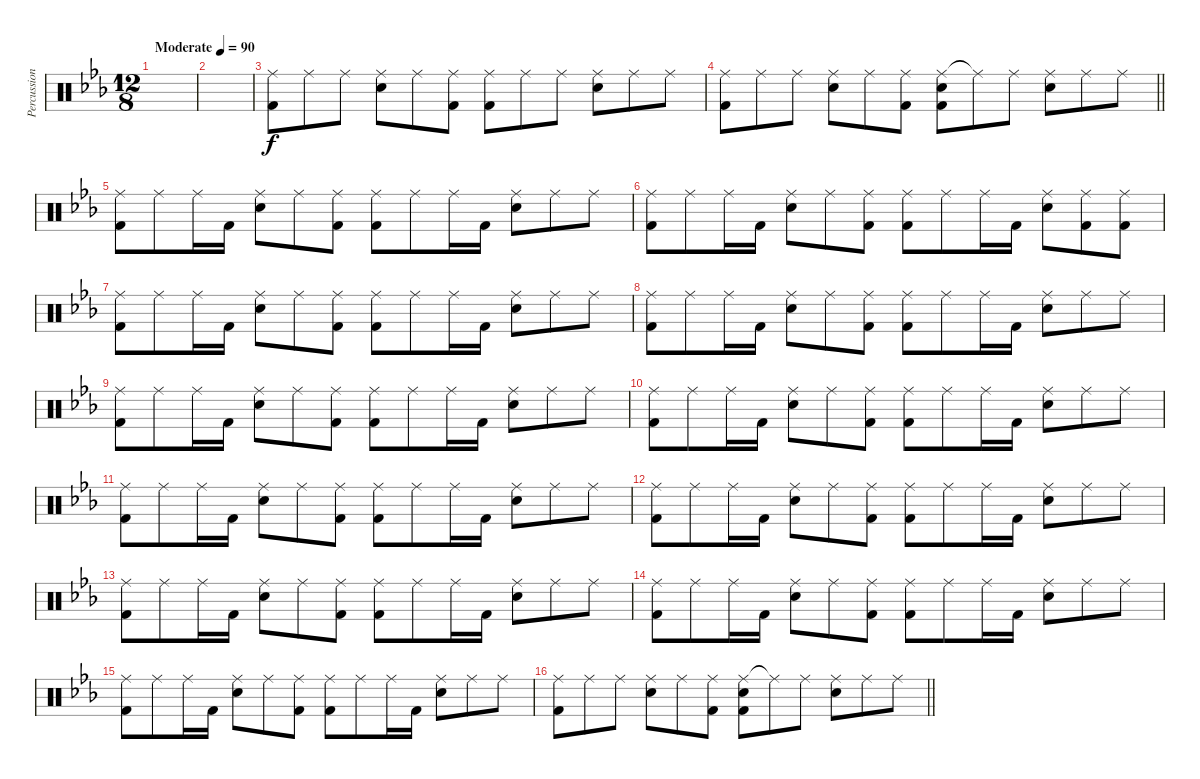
\track ("Percussion" "Percussion") {instrument percussion}
\staff {score}
\articulation defaults
\ts (12 8)
\tempo (90 "Moderate")
\clef neutral
\ks eb
|
|
("Ride (middle)" "Kick (hit) 2").8 "Ride (middle)".8 "Ride (middle)".8 ("Ride (middle)" "Snare (hit) 2").8 "Ride (middle)".8 ("Ride (middle)" "Kick (hit) 2").8 ("Ride (middle)" "Kick (hit) 2").8 "Ride (middle)".8 "Ride (middle)".8 ("Ride (middle)" "Snare (hit) 2").8 "Ride (middle)".8 "Ride (middle)".8 |
\barLineRight lightlight
("Ride (middle)" "Kick (hit) 2").8 "Ride (middle)".8 "Ride (middle)".8 ("Ride (middle)" "Snare (hit) 2").8 "Ride (middle)".8 ("Ride (middle)" "Kick (hit) 2").8 ("Ride (middle)" "Snare (hit) 2" "Kick (hit) 2").8 "Ride (middle)"{t}.8 "Ride (middle)".8 ("Ride (middle)" "Snare (hit) 2").8 "Ride (middle)".8 "Ride (middle)".8 |
("Ride (middle)" "Kick (hit) 2").8 "Ride (middle)".8 "Ride (middle)".16 "Kick (hit) 2".16 ("Ride (middle)" "Snare (hit) 2").8 "Ride (middle)".8 ("Ride (middle)" "Kick (hit) 2").8 ("Ride (middle)" "Kick (hit) 2").8 "Ride (middle)".8 "Ride (middle)".16 "Kick (hit) 2".16 ("Ride (middle)" "Snare (hit) 2").8 "Ride (middle)".8 "Ride (middle)".8 |
("Ride (middle)" "Kick (hit) 2").8 "Ride (middle)".8 "Ride (middle)".16 "Kick (hit) 2".16 ("Ride (middle)" "Snare (hit) 2").8 "Ride (middle)".8 ("Ride (middle)" "Kick (hit) 2").8 ("Ride (middle)" "Kick (hit) 2").8 "Ride (middle)".8 "Ride (middle)".16 "Kick (hit) 2".16 ("Ride (middle)" "Snare (hit) 2").8 ("Ride (middle)" "Kick (hit) 2").8 ("Ride (middle)" "Kick (hit) 2").8 |
("Ride (middle)" "Kick (hit) 2").8 "Ride (middle)".8 "Ride (middle)".16 "Kick (hit) 2".16 ("Ride (middle)" "Snare (hit) 2").8 "Ride (middle)".8 ("Ride (middle)" "Kick (hit) 2").8 ("Ride (middle)" "Kick (hit) 2").8 "Ride (middle)".8 "Ride (middle)".16 "Kick (hit) 2".16 ("Ride (middle)" "Snare (hit) 2").8 "Ride (middle)".8 "Ride (middle)".8 |
("Ride (middle)" "Kick (hit) 2").8 "Ride (middle)".8 "Ride (middle)".16 "Kick (hit) 2".16 ("Ride (middle)" "Snare (hit) 2").8 "Ride (middle)".8 ("Ride (middle)" "Kick (hit) 2").8 ("Ride (middle)" "Kick (hit) 2").8 "Ride (middle)".8 "Ride (middle)".16 "Kick (hit) 2".16 ("Ride (middle)" "Snare (hit) 2").8 "Ride (middle)".8 "Ride (middle)".8 |
("Ride (middle)" "Kick (hit) 2").8 "Ride (middle)".8 "Ride (middle)".16 "Kick (hit) 2".16 ("Ride (middle)" "Snare (hit) 2").8 "Ride (middle)".8 ("Ride (middle)" "Kick (hit) 2").8 ("Ride (middle)" "Kick (hit) 2").8 "Ride (middle)".8 "Ride (middle)".16 "Kick (hit) 2".16 ("Ride (middle)" "Snare (hit) 2").8 "Ride (middle)".8 "Ride (middle)".8 |
("Ride (middle)" "Kick (hit) 2").8 "Ride (middle)".8 "Ride (middle)".16 "Kick (hit) 2".16 ("Ride (middle)" "Snare (hit) 2").8 "Ride (middle)".8 ("Ride (middle)" "Kick (hit) 2").8 ("Ride (middle)" "Kick (hit) 2").8 "Ride (middle)".8 "Ride (middle)".16 "Kick (hit) 2".16 ("Ride (middle)" "Snare (hit) 2").8 "Ride (middle)".8 "Ride (middle)".8 |
("Ride (middle)" "Kick (hit) 2").8 "Ride (middle)".8 "Ride (middle)".16 "Kick (hit) 2".16 ("Ride (middle)" "Snare (hit) 2").8 "Ride (middle)".8 ("Ride (middle)" "Kick (hit) 2").8 ("Ride (middle)" "Kick (hit) 2").8 "Ride (middle)".8 "Ride (middle)".16 "Kick (hit) 2".16 ("Ride (middle)" "Snare (hit) 2").8 "Ride (middle)".8 "Ride (middle)".8 |
("Ride (middle)" "Kick (hit) 2").8 "Ride (middle)".8 "Ride (middle)".16 "Kick (hit) 2".16 ("Ride (middle)" "Snare (hit) 2").8 "Ride (middle)".8 ("Ride (middle)" "Kick (hit) 2").8 ("Ride (middle)" "Kick (hit) 2").8 "Ride (middle)".8 "Ride (middle)".16 "Kick (hit) 2".16 ("Ride (middle)" "Snare (hit) 2").8 "Ride (middle)".8 "Ride (middle)".8 |
("Ride (middle)" "Kick (hit) 2").8 "Ride (middle)".8 "Ride (middle)".16 "Kick (hit) 2".16 ("Ride (middle)" "Snare (hit) 2").8 "Ride (middle)".8 ("Ride (middle)" "Kick (hit) 2").8 ("Ride (middle)" "Kick (hit) 2").8 "Ride (middle)".8 "Ride (middle)".16 "Kick (hit) 2".16 ("Ride (middle)" "Snare (hit) 2").8 "Ride (middle)".8 "Ride (middle)".8 |
("Ride (middle)" "Kick (hit) 2").8 "Ride (middle)".8 "Ride (middle)".16 "Kick (hit) 2".16 ("Ride (middle)" "Snare (hit) 2").8 "Ride (middle)".8 ("Ride (middle)" "Kick (hit) 2").8 ("Ride (middle)" "Kick (hit) 2").8 "Ride (middle)".8 "Ride (middle)".16 "Kick (hit) 2".16 ("Ride (middle)" "Snare (hit) 2").8 "Ride (middle)".8 "Ride (middle)".8 |
("Ride (middle)" "Kick (hit) 2").8 "Ride (middle)".8 "Ride (middle)".16 "Kick (hit) 2".16 ("Ride (middle)" "Snare (hit) 2").8 "Ride (middle)".8 ("Ride (middle)" "Kick (hit) 2").8 ("Ride (middle)" "Kick (hit) 2").8 "Ride (middle)".8 "Ride (middle)".16 "Kick (hit) 2".16 ("Ride (middle)" "Snare (hit) 2").8 "Ride (middle)".8 "Ride (middle)".8 |
\barLineRight lightlight
("Ride (middle)" "Kick (hit) 2").8 "Ride (middle)".8 "Ride (middle)".8 ("Ride (middle)" "Snare (hit) 2").8 "Ride (middle)".8 ("Ride (middle)" "Kick (hit) 2").8 ("Ride (middle)" "Snare (hit) 2" "Kick (hit) 2").8 "Ride (middle)"{t}.8 "Ride (middle)".8 ("Ride (middle)" "Snare (hit) 2").8 "Ride (middle)".8 "Ride (middle)".8
